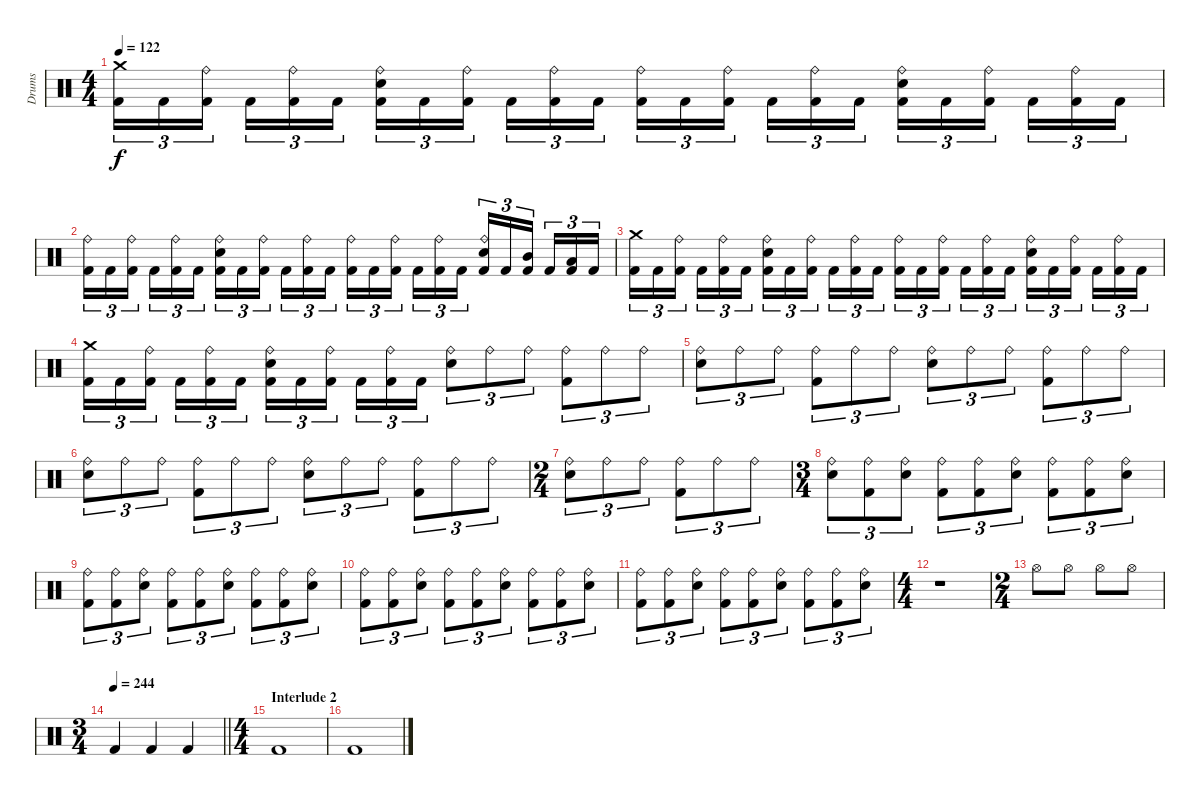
\track ("Drums" "Drums") {instrument percussion}
\staff
\articulation defaults
\ts (4 4)
\tempo 122
\clef neutral
\ks c
("Crash medium (hit)" "Kick (hit) 2").16{tu (3 2) dy f} "Kick (hit) 2".16{tu (3 2)} ("Ride (bell)" "Kick (hit) 2").16{tu (3 2) beam splitsecondary} "Kick (hit) 2".16{tu (3 2)} ("Ride (bell)" "Kick (hit) 2").16{tu (3 2)} "Kick (hit) 2".16{tu (3 2)} ("Ride (bell)" "Electric Snare (hit)" "Kick (hit) 2").16{tu (3 2)} "Kick (hit) 2".16{tu (3 2)} ("Ride (bell)" "Kick (hit) 2").16{tu (3 2) beam splitsecondary} "Kick (hit) 2".16{tu (3 2)} ("Ride (bell)" "Kick (hit) 2").16{tu (3 2)} "Kick (hit) 2".16{tu (3 2)} ("Ride (bell)" "Kick (hit) 2").16{tu (3 2)} "Kick (hit) 2".16{tu (3 2)} ("Ride (bell)" "Kick (hit) 2").16{tu (3 2) beam splitsecondary} "Kick (hit) 2".16{tu (3 2)} ("Ride (bell)" "Kick (hit) 2").16{tu (3 2)} "Kick (hit) 2".16{tu (3 2)} ("Ride (bell)" "Electric Snare (hit)" "Kick (hit) 2").16{tu (3 2)} "Kick (hit) 2".16{tu (3 2)} ("Ride (bell)" "Kick (hit) 2").16{tu (3 2) beam splitsecondary} "Kick (hit) 2".16{tu (3 2)} ("Ride (bell)" "Kick (hit) 2").16{tu (3 2)} "Kick (hit) 2".16{tu (3 2)} |
("Ride (bell)" "Kick (hit) 2").16{tu (3 2)} "Kick (hit) 2".16{tu (3 2)} ("Ride (bell)" "Kick (hit) 2").16{tu (3 2) beam splitsecondary} "Kick (hit) 2".16{tu (3 2)} ("Ride (bell)" "Kick (hit) 2").16{tu (3 2)} "Kick (hit) 2".16{tu (3 2)} ("Ride (bell)" "Electric Snare (hit)" "Kick (hit) 2").16{tu (3 2)} "Kick (hit) 2".16{tu (3 2)} ("Ride (bell)" "Kick (hit) 2").16{tu (3 2) beam splitsecondary} "Kick (hit) 2".16{tu (3 2)} ("Ride (bell)" "Kick (hit) 2").16{tu (3 2)} "Kick (hit) 2".16{tu (3 2)} ("Ride (bell)" "Kick (hit) 2").16{tu (3 2)} "Kick (hit) 2".16{tu (3 2)} ("Ride (bell)" "Kick (hit) 2").16{tu (3 2) beam splitsecondary} "Kick (hit) 2".16{tu (3 2)} ("Ride (bell)" "Kick (hit) 2").16{tu (3 2)} "Kick (hit) 2".16{tu (3 2)} ("Ride (bell)" "Electric Snare (hit)" "Kick (hit) 2").16{tu (3 2)} "Kick (hit) 2".16{tu (3 2)} ("Mid Tom (hit)" "Kick (hit) 2").16{tu (3 2) beam splitsecondary} "Kick (hit) 2".16{tu (3 2)} ("Low Tom (hit)" "Kick (hit) 2").16{tu (3 2)} "Kick (hit) 2".16{tu (3 2)} |
("Crash medium (hit)" "Kick (hit) 2").16{tu (3 2)} "Kick (hit) 2".16{tu (3 2)} ("Ride (bell)" "Kick (hit) 2").16{tu (3 2) beam splitsecondary} "Kick (hit) 2".16{tu (3 2)} ("Ride (bell)" "Kick (hit) 2").16{tu (3 2)} "Kick (hit) 2".16{tu (3 2)} ("Ride (bell)" "Electric Snare (hit)" "Kick (hit) 2").16{tu (3 2)} "Kick (hit) 2".16{tu (3 2)} ("Ride (bell)" "Kick (hit) 2").16{tu (3 2) beam splitsecondary} "Kick (hit) 2".16{tu (3 2)} ("Ride (bell)" "Kick (hit) 2").16{tu (3 2)} "Kick (hit) 2".16{tu (3 2)} ("Ride (bell)" "Kick (hit) 2").16{tu (3 2)} "Kick (hit) 2".16{tu (3 2)} ("Ride (bell)" "Kick (hit) 2").16{tu (3 2) beam splitsecondary} "Kick (hit) 2".16{tu (3 2)} ("Ride (bell)" "Kick (hit) 2").16{tu (3 2)} "Kick (hit) 2".16{tu (3 2)} ("Ride (bell)" "Electric Snare (hit)" "Kick (hit) 2").16{tu (3 2)} "Kick (hit) 2".16{tu (3 2)} ("Ride (bell)" "Kick (hit) 2").16{tu (3 2) beam splitsecondary} "Kick (hit) 2".16{tu (3 2)} ("Ride (bell)" "Kick (hit) 2").16{tu (3 2)} "Kick (hit) 2".16{tu (3 2)} |
("Crash medium (hit)" "Kick (hit) 2").16{tu (3 2)} "Kick (hit) 2".16{tu (3 2)} ("Ride (bell)" "Kick (hit) 2").16{tu (3 2) beam splitsecondary} "Kick (hit) 2".16{tu (3 2)} ("Ride (bell)" "Kick (hit) 2").16{tu (3 2)} "Kick (hit) 2".16{tu (3 2)} ("Ride (bell)" "Electric Snare (hit)" "Kick (hit) 2").16{tu (3 2)} "Kick (hit) 2".16{tu (3 2)} ("Ride (bell)" "Kick (hit) 2").16{tu (3 2) beam splitsecondary} "Kick (hit) 2".16{tu (3 2)} ("Ride (bell)" "Kick (hit) 2").16{tu (3 2)} "Kick (hit) 2".16{tu (3 2)} ("Ride (bell)" "Electric Snare (hit)").8{tu (3 2)} "Ride (bell)".8{tu (3 2)} "Ride (bell)".8{tu (3 2)} ("Ride (bell)" "Kick (hit) 2").8{tu (3 2)} "Ride (bell)".8{tu (3 2)} "Ride (bell)".8{tu (3 2)} |
("Ride (bell)" "Electric Snare (hit)").8{tu (3 2)} "Ride (bell)".8{tu (3 2)} "Ride (bell)".8{tu (3 2)} ("Ride (bell)" "Kick (hit) 2").8{tu (3 2)} "Ride (bell)".8{tu (3 2)} "Ride (bell)".8{tu (3 2)} ("Ride (bell)" "Electric Snare (hit)").8{tu (3 2)} "Ride (bell)".8{tu (3 2)} "Ride (bell)".8{tu (3 2)} ("Ride (bell)" "Kick (hit) 2").8{tu (3 2)} "Ride (bell)".8{tu (3 2)} "Ride (bell)".8{tu (3 2)} |
("Ride (bell)" "Electric Snare (hit)").8{tu (3 2)} "Ride (bell)".8{tu (3 2)} "Ride (bell)".8{tu (3 2)} ("Ride (bell)" "Kick (hit) 2").8{tu (3 2)} "Ride (bell)".8{tu (3 2)} "Ride (bell)".8{tu (3 2)} ("Ride (bell)" "Electric Snare (hit)").8{tu (3 2)} "Ride (bell)".8{tu (3 2)} "Ride (bell)".8{tu (3 2)} ("Ride (bell)" "Kick (hit) 2").8{tu (3 2)} "Ride (bell)".8{tu (3 2)} "Ride (bell)".8{tu (3 2)} |
\ts (2 4)
("Ride (bell)" "Electric Snare (hit)").8{tu (3 2)} "Ride (bell)".8{tu (3 2)} "Ride (bell)".8{tu (3 2)} ("Ride (bell)" "Kick (hit) 2").8{tu (3 2)} "Ride (bell)".8{tu (3 2)} "Ride (bell)".8{tu (3 2)} |
\ts (3 4)
("Ride (bell)" "Electric Snare (hit)").8{tu (3 2)} ("Ride (bell)" "Kick (hit) 2").8{tu (3 2)} ("Ride (bell)" "Electric Snare (hit)").8{tu (3 2)} ("Ride (bell)" "Kick (hit) 2").8{tu (3 2)} ("Ride (bell)" "Kick (hit) 2").8{tu (3 2)} ("Ride (bell)" "Electric Snare (hit)").8{tu (3 2)} ("Ride (bell)" "Kick (hit) 2").8{tu (3 2)} ("Ride (bell)" "Kick (hit) 2").8{tu (3 2)} ("Ride (bell)" "Electric Snare (hit)").8{tu (3 2)} |
("Ride (bell)" "Kick (hit) 2").8{tu (3 2)} ("Ride (bell)" "Kick (hit) 2").8{tu (3 2)} ("Ride (bell)" "Electric Snare (hit)").8{tu (3 2)} ("Ride (bell)" "Kick (hit) 2").8{tu (3 2)} ("Ride (bell)" "Kick (hit) 2").8{tu (3 2)} ("Ride (bell)" "Electric Snare (hit)").8{tu (3 2)} ("Ride (bell)" "Kick (hit) 2").8{tu (3 2)} ("Ride (bell)" "Kick (hit) 2").8{tu (3 2)} ("Ride (bell)" "Electric Snare (hit)").8{tu (3 2)} |
("Ride (bell)" "Kick (hit) 2").8{tu (3 2)} ("Ride (bell)" "Kick (hit) 2").8{tu (3 2)} ("Ride (bell)" "Electric Snare (hit)").8{tu (3 2)} ("Ride (bell)" "Kick (hit) 2").8{tu (3 2)} ("Ride (bell)" "Kick (hit) 2").8{tu (3 2)} ("Ride (bell)" "Electric Snare (hit)").8{tu (3 2)} ("Ride (bell)" "Kick (hit) 2").8{tu (3 2)} ("Ride (bell)" "Kick (hit) 2").8{tu (3 2)} ("Ride (bell)" "Electric Snare (hit)").8{tu (3 2)} |
("Ride (bell)" "Kick (hit) 2").8{tu (3 2)} ("Ride (bell)" "Kick (hit) 2").8{tu (3 2)} ("Ride (bell)" "Electric Snare (hit)").8{tu (3 2)} ("Ride (bell)" "Kick (hit) 2").8{tu (3 2)} ("Ride (bell)" "Kick (hit) 2").8{tu (3 2)} ("Ride (bell)" "Electric Snare (hit)").8{tu (3 2)} ("Ride (bell)" "Kick (hit) 2").8{tu (3 2)} ("Ride (bell)" "Kick (hit) 2").8{tu (3 2)} ("Ride (bell)" "Electric Snare (hit)").8{tu (3 2)} |
\ts (4 4)
r.1 |
\ts (2 4)
"Hi-Hat (open)".8 "Hi-Hat (open)".8 "Hi-Hat (open)".8 "Hi-Hat (open)".8 |
\ts (3 4)
\tempo 244
\barLineRight lightlight "Kick (hit) 2".4 "Kick (hit) 2".4 "Kick (hit) 2".4
|
\ts (4 4)
\section ("" "Interlude 2")
"Kick (hit) 2".1 |
"Kick (hit) 2".1
